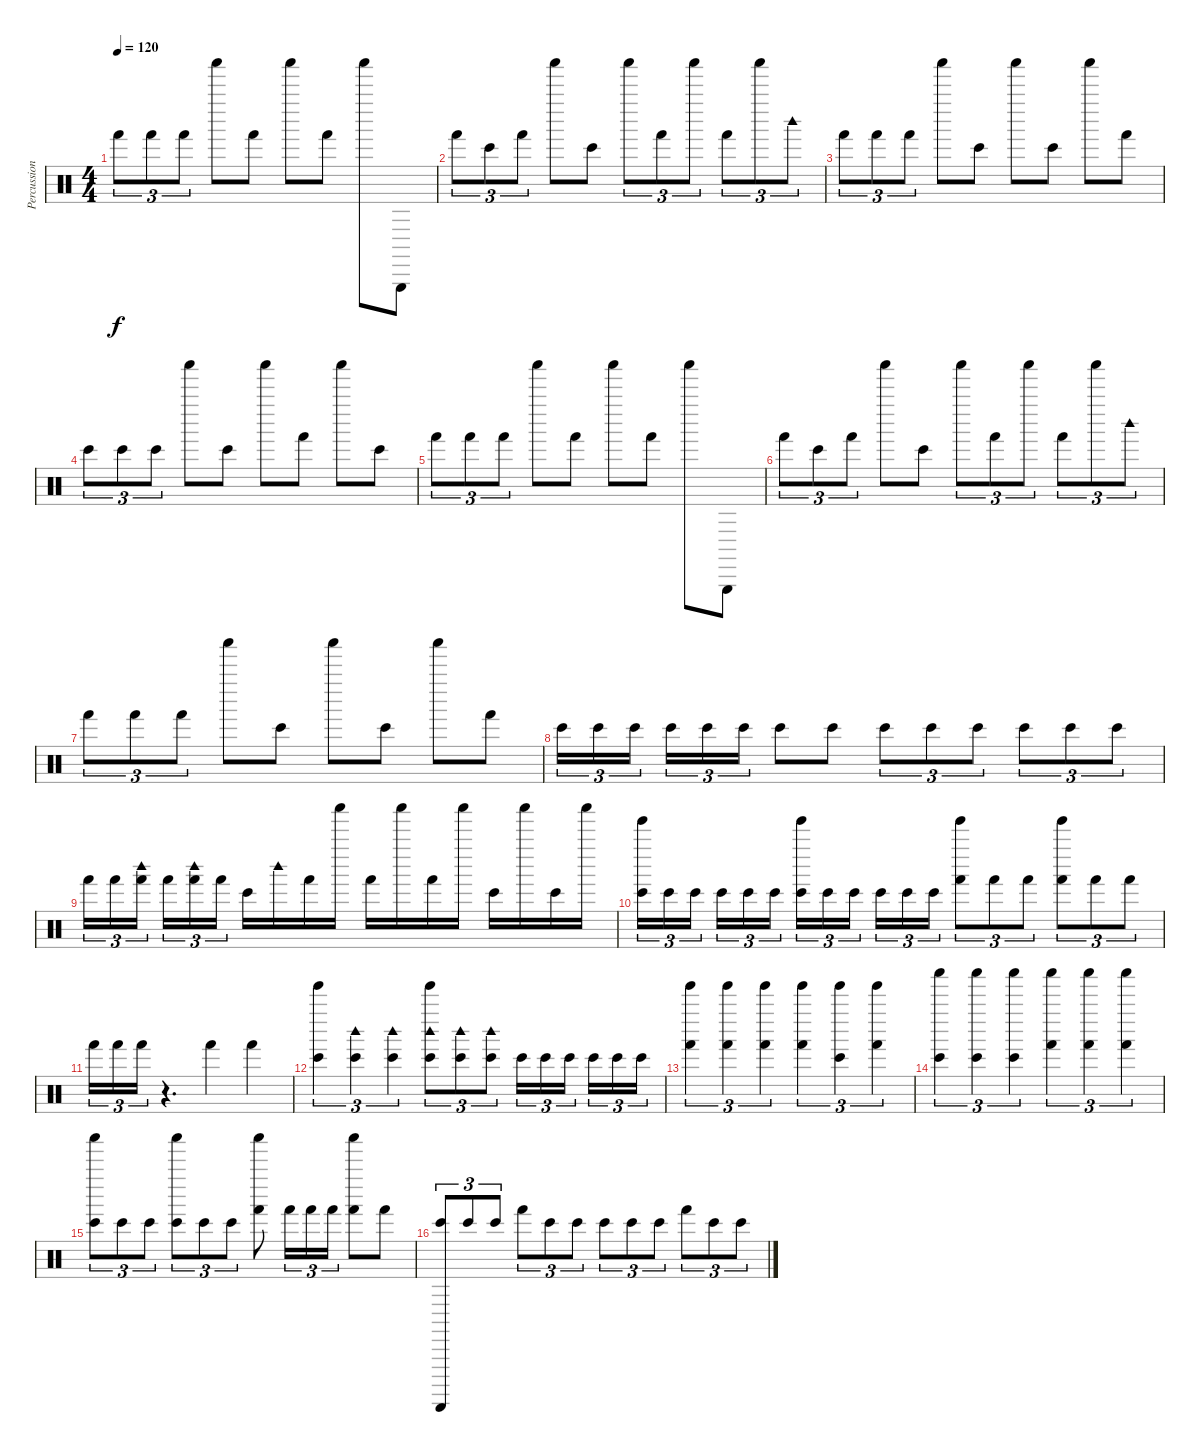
\track ("Percussion" "Percussion") {instrument percussion}
\staff {score}
\articulation defaults
\ts (4 4)
\tempo 120
\clef neutral
\ks c "Hand (hit)".8{tu (3 2) dy f} "Hand (hit)".8{tu (3 2)} "Hand (hit)".8{tu (3 2)} "Shaker (hit)".8 "Hand (hit)".8 "Shaker (hit)".8 "Hand (hit)".8 "Shaker (hit)".8 "Triangle (hit)".8
|
"Hand (hit)".8{tu (3 2)} "Bongo High (hit)".8{tu (3 2)} "Hand (hit)".8{tu (3 2)} "Shaker (hit)".8 "Bongo High (hit)".8 "Shaker (hit)".8{tu (3 2)} "Hand (hit)".8{tu (3 2)} "Shaker (hit)".8{tu (3 2)} "Hand (hit)".8{tu (3 2)} "Shaker (hit)".8{tu (3 2)} "Woodblock high (hit)".8{tu (3 2)} |
"Hand (hit)".8{tu (3 2)} "Hand (hit)".8{tu (3 2)} "Hand (hit)".8{tu (3 2)} "Shaker (hit)".8 "Bongo High (hit)".8 "Shaker (hit)".8 "Bongo High (hit)".8 "Shaker (hit)".8 "Hand (hit)".8 |
"Bongo High (hit)".8{tu (3 2)} "Bongo High (hit)".8{tu (3 2)} "Bongo High (hit)".8{tu (3 2)} "Shaker (hit)".8 "Bongo High (hit)".8 "Shaker (hit)".8 "Hand (hit)".8 "Shaker (hit)".8 "Bongo High (hit)".8 |
"Hand (hit)".8{tu (3 2)} "Hand (hit)".8{tu (3 2)} "Hand (hit)".8{tu (3 2)} "Shaker (hit)".8 "Hand (hit)".8 "Shaker (hit)".8 "Hand (hit)".8 "Shaker (hit)".8 "Triangle (hit)".8 |
"Hand (hit)".8{tu (3 2)} "Bongo High (hit)".8{tu (3 2)} "Hand (hit)".8{tu (3 2)} "Shaker (hit)".8 "Bongo High (hit)".8 "Shaker (hit)".8{tu (3 2)} "Hand (hit)".8{tu (3 2)} "Shaker (hit)".8{tu (3 2)} "Hand (hit)".8{tu (3 2)} "Shaker (hit)".8{tu (3 2)} "Woodblock high (hit)".8{tu (3 2)} |
"Hand (hit)".8{tu (3 2)} "Hand (hit)".8{tu (3 2)} "Hand (hit)".8{tu (3 2)} "Shaker (hit)".8 "Bongo High (hit)".8 "Shaker (hit)".8 "Bongo High (hit)".8 "Shaker (hit)".8 "Hand (hit)".8 |
"Bongo High (hit)".16{tu (3 2)} "Bongo High (hit)".16{tu (3 2)} "Bongo High (hit)".16{tu (3 2)} "Bongo High (hit)".16{tu (3 2)} "Bongo High (hit)".16{tu (3 2)} "Bongo High (hit)".16{tu (3 2)} "Bongo High (hit)".8 "Bongo High (hit)".8 "Bongo High (hit)".8{tu (3 2)} "Bongo High (hit)".8{tu (3 2)} "Bongo High (hit)".8{tu (3 2)} "Bongo High (hit)".8{tu (3 2)} "Bongo High (hit)".8{tu (3 2)} "Bongo High (hit)".8{tu (3 2)} |
"Hand (hit)".16{tu (3 2)} "Hand (hit)".16{tu (3 2)} ("Hand (hit)" "Woodblock high (hit)").16{tu (3 2)} "Hand (hit)".16{tu (3 2)} ("Hand (hit)" "Woodblock high (hit)").16{tu (3 2)} "Hand (hit)".16{tu (3 2)} "Bongo High (hit)".16 "Woodblock high (hit)".16 "Hand (hit)".16 "Shaker (hit)".16 "Hand (hit)".16 "Shaker (hit)".16 "Hand (hit)".16 "Shaker (hit)".16 "Bongo High (hit)".16 "Shaker (hit)".16 "Bongo High (hit)".16 "Shaker (hit)".16 |
("Bongo High (hit)" "Tinkle Bell (hit)").16{tu (3 2)} "Bongo High (hit)".16{tu (3 2)} "Bongo High (hit)".16{tu (3 2)} "Bongo High (hit)".16{tu (3 2)} "Bongo High (hit)".16{tu (3 2)} "Bongo High (hit)".16{tu (3 2)} ("Bongo High (hit)" "Tinkle Bell (hit)").16{tu (3 2)} "Bongo High (hit)".16{tu (3 2)} "Bongo High (hit)".16{tu (3 2)} "Bongo High (hit)".16{tu (3 2)} "Bongo High (hit)".16{tu (3 2)} "Bongo High (hit)".16{tu (3 2)} ("Hand (hit)" "Tinkle Bell (hit)").8{tu (3 2)} "Hand (hit)".8{tu (3 2)} "Hand (hit)".8{tu (3 2)} ("Hand (hit)" "Tinkle Bell (hit)").8{tu (3 2)} "Hand (hit)".8{tu (3 2)} "Hand (hit)".8{tu (3 2)} |
"Hand (hit)".16{tu (3 2)} "Hand (hit)".16{tu (3 2)} "Hand (hit)".16{tu (3 2)} r.4{d} "Hand (hit)".4 "Hand (hit)".4 |
("Bongo High (hit)" "Tinkle Bell (hit)").4{tu (3 2)} ("Bongo High (hit)" "Woodblock high (hit)").4{tu (3 2)} ("Bongo High (hit)" "Woodblock high (hit)").4{tu (3 2)} ("Bongo High (hit)" "Woodblock high (hit)" "Tinkle Bell (hit)").8{tu (3 2)} ("Bongo High (hit)" "Woodblock high (hit)").8{tu (3 2)} ("Bongo High (hit)" "Woodblock high (hit)").8{tu (3 2)} "Bongo High (hit)".16{tu (3 2)} "Bongo High (hit)".16{tu (3 2)} "Bongo High (hit)".16{tu (3 2)} "Bongo High (hit)".16{tu (3 2)} "Bongo High (hit)".16{tu (3 2)} "Bongo High (hit)".16{tu (3 2)} |
("Hand (hit)" "Tinkle Bell (hit)").4{tu (3 2)} ("Hand (hit)" "Tinkle Bell (hit)").4{tu (3 2)} ("Hand (hit)" "Tinkle Bell (hit)").4{tu (3 2)} ("Hand (hit)" "Tinkle Bell (hit)").4{tu (3 2)} ("Bongo High (hit)" "Tinkle Bell (hit)").4{tu (3 2)} ("Hand (hit)" "Tinkle Bell (hit)").4{tu (3 2)} |
("Bongo High (hit)" "Shaker (hit)").4{tu (3 2)} ("Bongo High (hit)" "Shaker (hit)").4{tu (3 2)} ("Bongo High (hit)" "Shaker (hit)").4{tu (3 2)} ("Hand (hit)" "Shaker (hit)").4{tu (3 2)} ("Hand (hit)" "Shaker (hit)").4{tu (3 2)} ("Hand (hit)" "Shaker (hit)").4{tu (3 2)} |
("Bongo High (hit)" "Shaker (hit)").8{tu (3 2)} "Bongo High (hit)".8{tu (3 2)} "Bongo High (hit)".8{tu (3 2)} ("Bongo High (hit)" "Shaker (hit)").8{tu (3 2)} "Bongo High (hit)".8{tu (3 2)} "Bongo High (hit)".8{tu (3 2)} ("Hand (hit)" "Shaker (hit)").8 "Hand (hit)".16{tu (3 2)} "Hand (hit)".16{tu (3 2)} "Hand (hit)".16{tu (3 2)} ("Hand (hit)" "Shaker (hit)").8 "Hand (hit)".8 |
("Bongo High (hit)" "Guiro (scrap-return)").8{tu (3 2)} "Bongo High (hit)".8{tu (3 2)} "Bongo High (hit)".8{tu (3 2)} "Hand (hit)".8{tu (3 2)} "Bongo High (hit)".8{tu (3 2)} "Bongo High (hit)".8{tu (3 2)} "Bongo High (hit)".8{tu (3 2)} "Bongo High (hit)".8{tu (3 2)} "Bongo High (hit)".8{tu (3 2)} "Hand (hit)".8{tu (3 2)} "Bongo High (hit)".8{tu (3 2)} "Bongo High (hit)".8{tu (3 2)}
